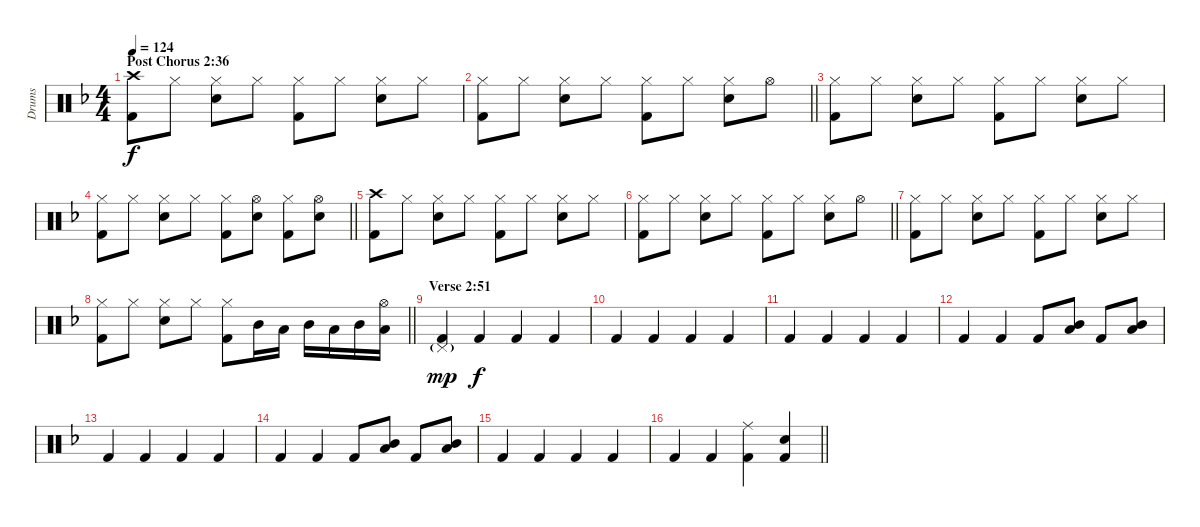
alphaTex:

\track ("Drums" "Drums") {instrument percussion}
\staff {score}
\articulation defaults
\ts (4 4)
\section ("" "Post Chorus 2:36")
\tempo 124
\clef neutral
\ks f
("Crash high (hit)" "Kick (hit) 2").8{dy f} "Hi-Hat (closed)".8 ("Hi-Hat (closed)" "Snare (hit) 2").8 "Hi-Hat (closed)".8 ("Hi-Hat (closed)" "Kick (hit) 2").8 "Hi-Hat (closed)".8 ("Hi-Hat (closed)" "Snare (hit) 2").8 "Hi-Hat (closed)".8 |
\barLineRight lightlight
("Hi-Hat (closed)" "Kick (hit) 2").8 "Hi-Hat (closed)".8 ("Hi-Hat (closed)" "Snare (hit) 2").8 "Hi-Hat (closed)".8 ("Hi-Hat (closed)" "Kick (hit) 2").8 "Hi-Hat (closed)".8 ("Hi-Hat (closed)" "Snare (hit) 2").8 "Hi-Hat (open)".8 |
("Hi-Hat (closed)" "Kick (hit) 2").8 "Hi-Hat (closed)".8 ("Hi-Hat (closed)" "Snare (hit) 2").8 "Hi-Hat (closed)".8 ("Hi-Hat (closed)" "Kick (hit) 2").8 "Hi-Hat (closed)".8 ("Hi-Hat (closed)" "Snare (hit) 2").8 "Hi-Hat (closed)".8 |
\barLineRight lightlight
("Hi-Hat (closed)" "Kick (hit) 2").8 "Hi-Hat (closed)".8 ("Hi-Hat (closed)" "Snare (hit) 2").8 "Hi-Hat (closed)".8 ("Hi-Hat (closed)" "Kick (hit) 2").8 ("Hi-Hat (open)" "Snare (hit) 2").8 ("Hi-Hat (closed)" "Kick (hit) 2").8 ("Hi-Hat (open)" "Snare (hit) 2").8 |
("Crash high (hit)" "Kick (hit) 2").8 "Hi-Hat (closed)".8 ("Hi-Hat (closed)" "Snare (hit) 2").8 "Hi-Hat (closed)".8 ("Hi-Hat (closed)" "Kick (hit) 2").8 "Hi-Hat (closed)".8 ("Hi-Hat (closed)" "Snare (hit) 2").8 "Hi-Hat (closed)".8 |
\barLineRight lightlight
("Hi-Hat (closed)" "Kick (hit) 2").8 "Hi-Hat (closed)".8 ("Hi-Hat (closed)" "Snare (hit) 2").8 "Hi-Hat (closed)".8 ("Hi-Hat (closed)" "Kick (hit) 2").8 "Hi-Hat (closed)".8 ("Hi-Hat (closed)" "Snare (hit) 2").8 "Hi-Hat (open)".8 |
("Hi-Hat (closed)" "Kick (hit) 2").8 "Hi-Hat (closed)".8 ("Hi-Hat (closed)" "Snare (hit) 2").8 "Hi-Hat (closed)".8 ("Hi-Hat (closed)" "Kick (hit) 2").8 "Hi-Hat (closed)".8 ("Hi-Hat (closed)" "Snare (hit) 2").8 "Hi-Hat (closed)".8 |
\barLineRight lightlight
("Hi-Hat (closed)" "Kick (hit) 2").8 "Hi-Hat (closed)".8 ("Hi-Hat (closed)" "Snare (hit) 2").8 "Hi-Hat (closed)".8 ("Hi-Hat (closed)" "Kick (hit) 2").8 "Mid Tom (hit)".16 "Low Tom (hit)".16 "Mid Tom (hit)".16 "Low Tom (hit)".16 "Mid Tom (hit)".16 ("Hi-Hat (open)" "Low Tom (hit)").16 |
\section ("" "Verse 2:51")
("Pedal Hi-Hat (hit)"{g} "Kick (hit) 2").4{dy mp} "Kick (hit) 2".4{dy f} "Kick (hit) 2".4 "Kick (hit) 2".4 |
"Kick (hit) 2".4 "Kick (hit) 2".4 "Kick (hit) 2".4 "Kick (hit) 2".4 |
"Kick (hit) 2".4 "Kick (hit) 2".4 "Kick (hit) 2".4 "Kick (hit) 2".4 |
"Kick (hit) 2".4 "Kick (hit) 2".4 "Kick (hit) 2".8 ("Low Tom (hit)" "Mid Tom (hit)").8 "Kick (hit) 2".8 ("Low Tom (hit)" "Mid Tom (hit)").8 |
"Kick (hit) 2".4 "Kick (hit) 2".4 "Kick (hit) 2".4 "Kick (hit) 2".4 |
"Kick (hit) 2".4 "Kick (hit) 2".4 "Kick (hit) 2".8 ("Low Tom (hit)" "Mid Tom (hit)").8 "Kick (hit) 2".8 ("Low Tom (hit)" "Mid Tom (hit)").8 |
"Kick (hit) 2".4 "Kick (hit) 2".4 "Kick (hit) 2".4 "Kick (hit) 2".4 |
\barLineRight lightlight "Kick (hit) 2".4 "Kick (hit) 2".4
("Ride (middle)" "Kick (hit) 2").4 ("Snare (hit) 2" "Kick (hit) 2").4
